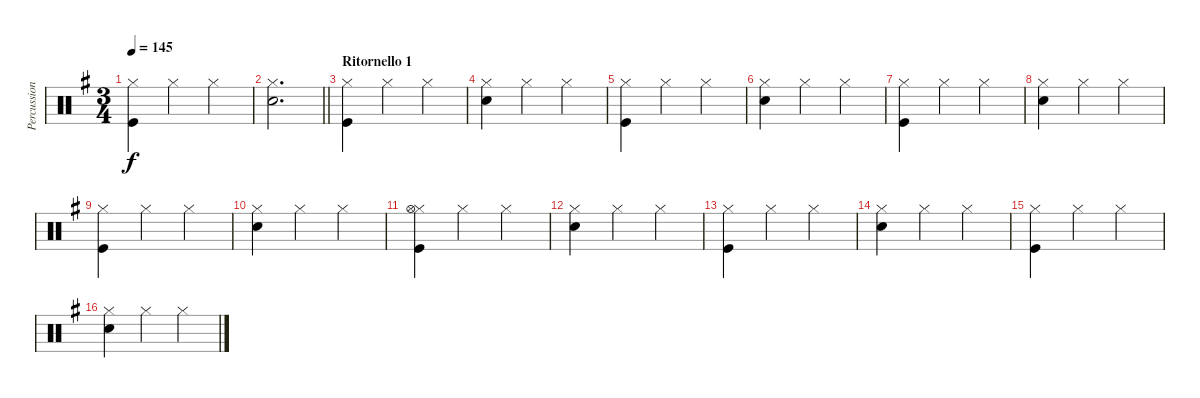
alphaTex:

\track ("Percussioni" "Percussion") {instrument percussion}
\staff {score}
\articulation defaults
\ts (3 4)
\tempo 145
\clef neutral
\ks g
("Hi-Hat (closed)" "Kick (hit)").4{dy f} "Hi-Hat (closed)".4 "Hi-Hat (closed)".4 |
\barLineRight lightlight
("Hi-Hat (closed)" "Snare (hit) 2").2{d} |
\section ("" "Ritornello 1")
("Hi-Hat (closed)" "Kick (hit)").4 "Hi-Hat (closed)".4 "Hi-Hat (closed)".4 |
("Hi-Hat (closed)" "Snare (hit) 2").4 "Hi-Hat (closed)".4 "Hi-Hat (closed)".4 |
("Hi-Hat (closed)" "Kick (hit)").4 "Hi-Hat (closed)".4 "Hi-Hat (closed)".4 |
("Hi-Hat (closed)" "Snare (hit) 2").4 "Hi-Hat (closed)".4 "Hi-Hat (closed)".4 |
("Hi-Hat (closed)" "Kick (hit)").4 "Hi-Hat (closed)".4 "Hi-Hat (closed)".4 |
("Hi-Hat (closed)" "Snare (hit) 2").4 "Hi-Hat (closed)".4 "Hi-Hat (closed)".4 |
("Hi-Hat (closed)" "Kick (hit)").4 "Hi-Hat (closed)".4 "Hi-Hat (closed)".4 |
("Hi-Hat (closed)" "Snare (hit) 2").4 "Hi-Hat (closed)".4 "Hi-Hat (closed)".4 |
("Hi-Hat (closed)" "Kick (hit)" "Hi-Hat (open)").4 "Hi-Hat (closed)".4 "Hi-Hat (closed)".4 |
("Hi-Hat (closed)" "Snare (hit) 2").4 "Hi-Hat (closed)".4 "Hi-Hat (closed)".4 |
("Hi-Hat (closed)" "Kick (hit)").4 "Hi-Hat (closed)".4 "Hi-Hat (closed)".4 |
("Hi-Hat (closed)" "Snare (hit) 2").4 "Hi-Hat (closed)".4 "Hi-Hat (closed)".4 |
("Hi-Hat (closed)" "Kick (hit)").4 "Hi-Hat (closed)".4 "Hi-Hat (closed)".4 |
("Hi-Hat (closed)" "Snare (hit) 2").4 "Hi-Hat (closed)".4 "Hi-Hat (closed)".4
